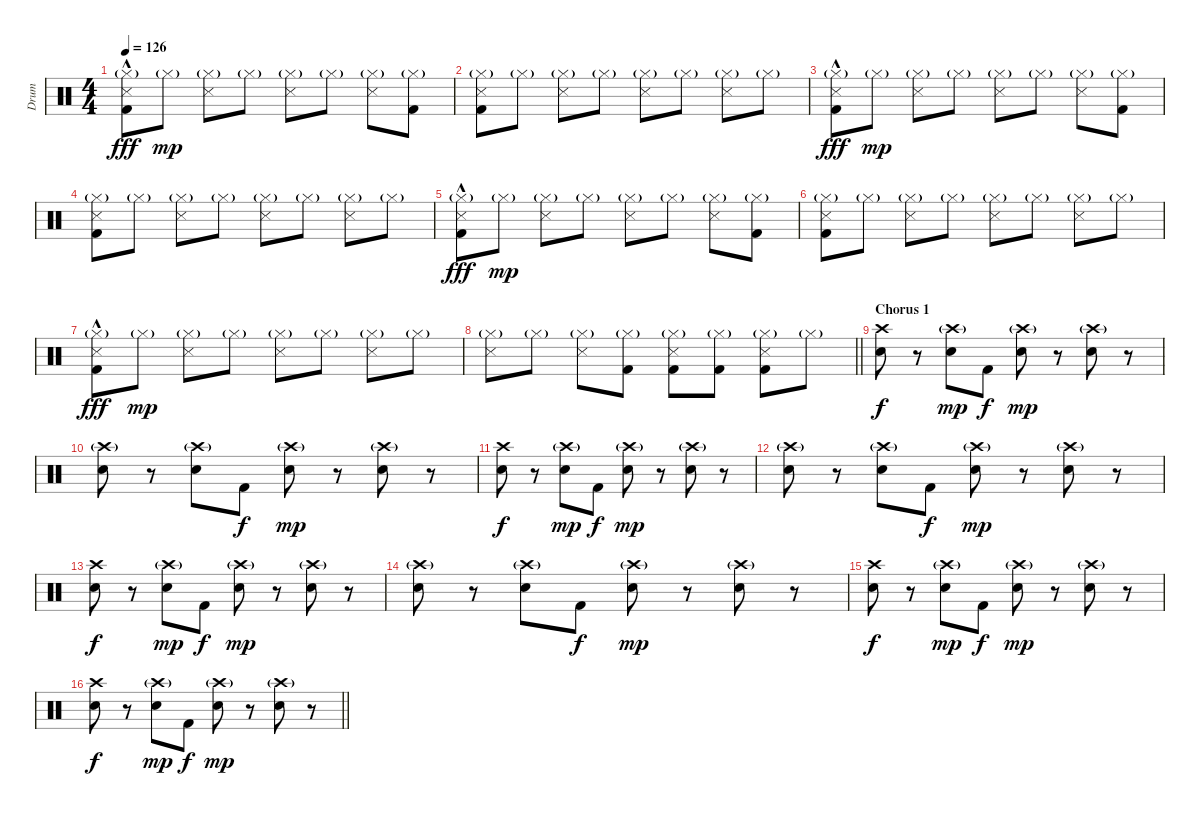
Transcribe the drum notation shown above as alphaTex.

\track ("Drum" "Drum") {instrument percussion}
\staff {score}
\articulation defaults
\ts (4 4)
\tempo 126
\clef neutral
\ks c
("Hi-Hat (closed)"{g} "Snare (side stick) 3" "Kick (hit) 2"{hac}).8{dy fff} "Hi-Hat (closed)"{g}.8{dy mp} ("Hi-Hat (closed)"{g} "Snare (side stick) 3").8 "Hi-Hat (closed)"{g}.8 ("Hi-Hat (closed)"{g} "Snare (side stick) 3").8 "Hi-Hat (closed)"{g}.8 ("Hi-Hat (closed)"{g} "Snare (side stick) 3").8 ("Hi-Hat (closed)"{g} "Kick (hit) 2").8 |
("Hi-Hat (closed)"{g} "Snare (side stick) 3" "Kick (hit) 2").8 "Hi-Hat (closed)"{g}.8 ("Hi-Hat (closed)"{g} "Snare (side stick) 3").8 "Hi-Hat (closed)"{g}.8 ("Hi-Hat (closed)"{g} "Snare (side stick) 3").8 "Hi-Hat (closed)"{g}.8 ("Hi-Hat (closed)"{g} "Snare (side stick) 3").8 "Hi-Hat (closed)"{g}.8 |
("Hi-Hat (closed)"{g} "Snare (side stick) 3" "Kick (hit) 2"{hac}).8{dy fff} "Hi-Hat (closed)"{g}.8{dy mp} ("Hi-Hat (closed)"{g} "Snare (side stick) 3").8 "Hi-Hat (closed)"{g}.8 ("Hi-Hat (closed)"{g} "Snare (side stick) 3").8 "Hi-Hat (closed)"{g}.8 ("Hi-Hat (closed)"{g} "Snare (side stick) 3").8 ("Hi-Hat (closed)"{g} "Kick (hit) 2").8 |
("Hi-Hat (closed)"{g} "Snare (side stick) 3" "Kick (hit) 2").8 "Hi-Hat (closed)"{g}.8 ("Hi-Hat (closed)"{g} "Snare (side stick) 3").8 "Hi-Hat (closed)"{g}.8 ("Hi-Hat (closed)"{g} "Snare (side stick) 3").8 "Hi-Hat (closed)"{g}.8 ("Hi-Hat (closed)"{g} "Snare (side stick) 3").8 "Hi-Hat (closed)"{g}.8 |
("Hi-Hat (closed)"{g} "Snare (side stick) 3" "Kick (hit) 2"{hac}).8{dy fff} "Hi-Hat (closed)"{g}.8{dy mp} ("Hi-Hat (closed)"{g} "Snare (side stick) 3").8 "Hi-Hat (closed)"{g}.8 ("Hi-Hat (closed)"{g} "Snare (side stick) 3").8 "Hi-Hat (closed)"{g}.8 ("Hi-Hat (closed)"{g} "Snare (side stick) 3").8 ("Hi-Hat (closed)"{g} "Kick (hit) 2").8 |
("Hi-Hat (closed)"{g} "Snare (side stick) 3" "Kick (hit) 2").8 "Hi-Hat (closed)"{g}.8 ("Hi-Hat (closed)"{g} "Snare (side stick) 3").8 "Hi-Hat (closed)"{g}.8 ("Hi-Hat (closed)"{g} "Snare (side stick) 3").8 "Hi-Hat (closed)"{g}.8 ("Hi-Hat (closed)"{g} "Snare (side stick) 3").8 "Hi-Hat (closed)"{g}.8 |
("Hi-Hat (closed)"{g} "Snare (side stick) 3" "Kick (hit) 2"{hac}).8{dy fff} "Hi-Hat (closed)"{g}.8{dy mp} ("Hi-Hat (closed)"{g} "Snare (side stick) 3").8 "Hi-Hat (closed)"{g}.8 ("Hi-Hat (closed)"{g} "Snare (side stick) 3").8 "Hi-Hat (closed)"{g}.8 ("Hi-Hat (closed)"{g} "Snare (side stick) 3").8 "Hi-Hat (closed)"{g}.8 |
\barLineRight lightlight
("Hi-Hat (closed)"{g} "Snare (side stick) 3").8 "Hi-Hat (closed)"{g}.8 ("Hi-Hat (closed)"{g} "Snare (side stick) 3").8 ("Hi-Hat (closed)"{g} "Kick (hit) 2").8 ("Hi-Hat (closed)"{g} "Snare (side stick) 3" "Kick (hit) 2").8 ("Hi-Hat (closed)"{g} "Kick (hit) 2").8 ("Hi-Hat (closed)"{g} "Snare (side stick) 3" "Kick (hit) 2").8 "Hi-Hat (closed)"{g}.8 |
\section ("" "Chorus 1")
("Crash high (hit)" "Electric Snare (hit)").8{dy f} r.8 ("Crash high (hit)"{g} "Electric Snare (hit)").8{dy mp} "Kick (hit) 2".8{dy f} ("Crash high (hit)"{g} "Electric Snare (hit)").8{dy mp} r.8 ("Crash high (hit)"{g} "Electric Snare (hit)").8 r.8 |
("Crash high (hit)"{g} "Electric Snare (hit)").8 r.8 ("Crash high (hit)"{g} "Electric Snare (hit)").8 "Kick (hit) 2".8{dy f} ("Crash high (hit)"{g} "Electric Snare (hit)").8{dy mp} r.8 ("Crash high (hit)"{g} "Electric Snare (hit)").8 r.8 |
("Crash high (hit)" "Electric Snare (hit)").8{dy f} r.8 ("Crash high (hit)"{g} "Electric Snare (hit)").8{dy mp} "Kick (hit) 2".8{dy f} ("Crash high (hit)"{g} "Electric Snare (hit)").8{dy mp} r.8 ("Crash high (hit)"{g} "Electric Snare (hit)").8 r.8 |
("Crash high (hit)"{g} "Electric Snare (hit)").8 r.8 ("Crash high (hit)"{g} "Electric Snare (hit)").8 "Kick (hit) 2".8{dy f} ("Crash high (hit)"{g} "Electric Snare (hit)").8{dy mp} r.8 ("Crash high (hit)"{g} "Electric Snare (hit)").8 r.8 |
("Crash high (hit)" "Electric Snare (hit)").8{dy f} r.8 ("Crash high (hit)"{g} "Electric Snare (hit)").8{dy mp} "Kick (hit) 2".8{dy f} ("Crash high (hit)"{g} "Electric Snare (hit)").8{dy mp} r.8 ("Crash high (hit)"{g} "Electric Snare (hit)").8 r.8 |
("Crash high (hit)"{g} "Electric Snare (hit)").8 r.8 ("Crash high (hit)"{g} "Electric Snare (hit)").8 "Kick (hit) 2".8{dy f} ("Crash high (hit)"{g} "Electric Snare (hit)").8{dy mp} r.8 ("Crash high (hit)"{g} "Electric Snare (hit)").8 r.8 |
("Crash high (hit)" "Electric Snare (hit)").8{dy f} r.8 ("Crash high (hit)"{g} "Electric Snare (hit)").8{dy mp} "Kick (hit) 2".8{dy f} ("Crash high (hit)"{g} "Electric Snare (hit)").8{dy mp} r.8 ("Crash high (hit)"{g} "Electric Snare (hit)").8 r.8 |
\barLineRight lightlight
("Crash high (hit)" "Electric Snare (hit)").8{dy f} r.8 ("Crash high (hit)"{g} "Electric Snare (hit)").8{dy mp} "Kick (hit) 2".8{dy f} ("Crash high (hit)"{g} "Electric Snare (hit)").8{dy mp} r.8 ("Crash high (hit)"{g} "Electric Snare (hit)").8 r.8
